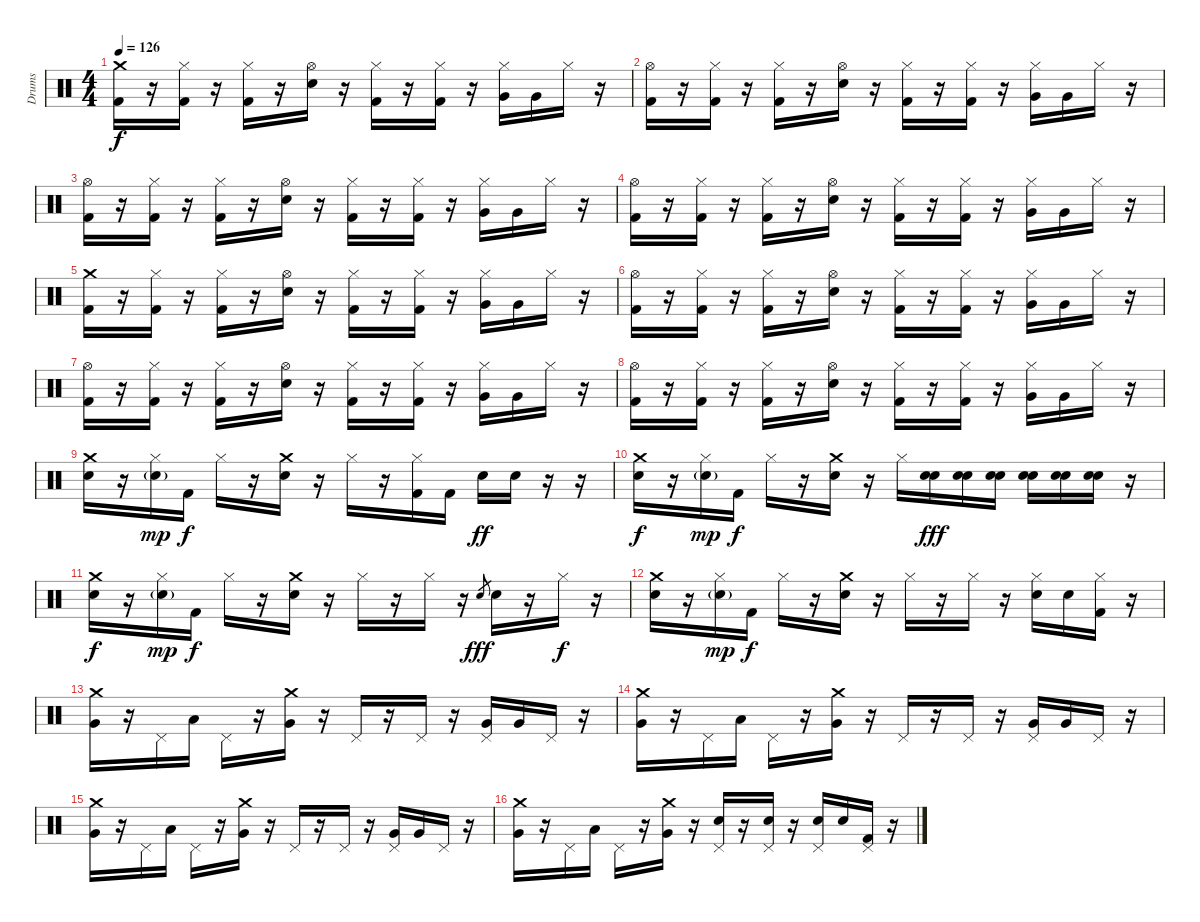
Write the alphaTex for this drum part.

\track ("Drums" "Drums") {instrument percussion}
\staff {score}
\articulation defaults
\ts (4 4)
\tempo 126
\clef neutral
\ks c
("Crash medium (hit)" "Kick (hit) 2").16{dy f} r.16 ("Hi-Hat (closed)" "Kick (hit) 2").16 r.16 ("Hi-Hat (closed)" "Kick (hit) 2").16 r.16 ("Hi-Hat (open)" "Snare (hit) 2").16 r.16 ("Hi-Hat (closed)" "Kick (hit) 2").16 r.16 ("Hi-Hat (closed)" "Kick (hit) 2").16 r.16 ("Hi-Hat (closed)" "Very Low Tom (hit)").16 "Very Low Tom (hit)".16 "Hi-Hat (closed)".16 r.16 |
("Hi-Hat (open)" "Kick (hit) 2").16 r.16 ("Hi-Hat (closed)" "Kick (hit) 2").16 r.16 ("Hi-Hat (closed)" "Kick (hit) 2").16 r.16 ("Hi-Hat (open)" "Snare (hit) 2").16 r.16 ("Hi-Hat (closed)" "Kick (hit) 2").16 r.16 ("Hi-Hat (closed)" "Kick (hit) 2").16 r.16 ("Hi-Hat (closed)" "Very Low Tom (hit)").16 "Very Low Tom (hit)".16 "Hi-Hat (closed)".16 r.16 |
("Hi-Hat (open)" "Kick (hit) 2").16 r.16 ("Hi-Hat (closed)" "Kick (hit) 2").16 r.16 ("Hi-Hat (closed)" "Kick (hit) 2").16 r.16 ("Hi-Hat (open)" "Snare (hit) 2").16 r.16 ("Hi-Hat (closed)" "Kick (hit) 2").16 r.16 ("Hi-Hat (closed)" "Kick (hit) 2").16 r.16 ("Hi-Hat (closed)" "Very Low Tom (hit)").16 "Very Low Tom (hit)".16 "Hi-Hat (closed)".16 r.16 |
("Hi-Hat (open)" "Kick (hit) 2").16 r.16 ("Hi-Hat (closed)" "Kick (hit) 2").16 r.16 ("Hi-Hat (closed)" "Kick (hit) 2").16 r.16 ("Hi-Hat (open)" "Snare (hit) 2").16 r.16 ("Hi-Hat (closed)" "Kick (hit) 2").16 r.16 ("Hi-Hat (closed)" "Kick (hit) 2").16 r.16 ("Hi-Hat (closed)" "Very Low Tom (hit)").16 "Very Low Tom (hit)".16 "Hi-Hat (closed)".16 r.16 |
("Crash medium (hit)" "Kick (hit) 2").16 r.16 ("Hi-Hat (closed)" "Kick (hit) 2").16 r.16 ("Hi-Hat (closed)" "Kick (hit) 2").16 r.16 ("Hi-Hat (open)" "Snare (hit) 2").16 r.16 ("Hi-Hat (closed)" "Kick (hit) 2").16 r.16 ("Hi-Hat (closed)" "Kick (hit) 2").16 r.16 ("Hi-Hat (closed)" "Very Low Tom (hit)").16 "Very Low Tom (hit)".16 "Hi-Hat (closed)".16 r.16 |
("Hi-Hat (open)" "Kick (hit) 2").16 r.16 ("Hi-Hat (closed)" "Kick (hit) 2").16 r.16 ("Hi-Hat (closed)" "Kick (hit) 2").16 r.16 ("Hi-Hat (open)" "Snare (hit) 2").16 r.16 ("Hi-Hat (closed)" "Kick (hit) 2").16 r.16 ("Hi-Hat (closed)" "Kick (hit) 2").16 r.16 ("Hi-Hat (closed)" "Very Low Tom (hit)").16 "Very Low Tom (hit)".16 "Hi-Hat (closed)".16 r.16 |
("Hi-Hat (open)" "Kick (hit) 2").16 r.16 ("Hi-Hat (closed)" "Kick (hit) 2").16 r.16 ("Hi-Hat (closed)" "Kick (hit) 2").16 r.16 ("Hi-Hat (open)" "Snare (hit) 2").16 r.16 ("Hi-Hat (closed)" "Kick (hit) 2").16 r.16 ("Hi-Hat (closed)" "Kick (hit) 2").16 r.16 ("Hi-Hat (closed)" "Very Low Tom (hit)").16 "Very Low Tom (hit)".16 "Hi-Hat (closed)".16 r.16 |
("Hi-Hat (open)" "Kick (hit) 2").16 r.16 ("Hi-Hat (closed)" "Kick (hit) 2").16 r.16 ("Hi-Hat (closed)" "Kick (hit) 2").16 r.16 ("Hi-Hat (open)" "Snare (hit) 2").16 r.16 ("Hi-Hat (closed)" "Kick (hit) 2").16 r.16 ("Hi-Hat (closed)" "Kick (hit) 2").16 r.16 ("Hi-Hat (closed)" "Very Low Tom (hit)").16 "Very Low Tom (hit)".16 "Hi-Hat (closed)".16 r.16 |
("Crash medium (hit)" "Snare (hit) 2").16 r.16 ("Hi-Hat (closed)" "Snare (hit) 2"{g}).16{dy mp} "Kick (hit) 2".16{dy f} "Hi-Hat (closed)".16 r.16 ("Crash medium (hit)" "Snare (hit) 2").16 r.16 "Hi-Hat (closed)".16 r.16 ("Hi-Hat (closed)" "Kick (hit) 2").16 "Kick (hit) 2".16 "Snare (hit) 2".16{dy ff} "Snare (hit) 2".16 r.16 r.16 |
("Crash medium (hit)" "Snare (hit) 2").16{dy f} r.16 ("Hi-Hat (closed)" "Snare (hit) 2"{g}).16{dy mp} "Kick (hit) 2".16{dy f} "Hi-Hat (closed)".16 r.16 ("Crash medium (hit)" "Snare (hit) 2").16 r.16 "Hi-Hat (closed)".16 ("Snare (hit) 2" "Snare (hit) 2").16{dy fff} ("Snare (hit) 2" "Snare (hit) 2").16 ("Snare (hit) 2" "Snare (hit) 2").16 ("Snare (hit) 2" "Snare (hit) 2").16 ("Snare (hit) 2" "Snare (hit) 2").16 ("Snare (hit) 2" "Snare (hit) 2").16 r.16 |
("Crash medium (hit)" "Snare (hit) 2").16{dy f} r.16 ("Hi-Hat (closed)" "Snare (hit) 2"{g}).16{dy mp} "Kick (hit) 2".16{dy f} "Hi-Hat (closed)".16 r.16 ("Crash medium (hit)" "Snare (hit) 2").16 r.16 "Hi-Hat (closed)".16 r.16 "Hi-Hat (closed)".16 r.16 "Snare (hit) 2".8{gr dy fff} "Snare (hit) 2".16 r.16 "Hi-Hat (closed)".16{dy f} r.16 |
("Crash medium (hit)" "Snare (hit) 2").16 r.16 ("Hi-Hat (closed)" "Snare (hit) 2"{g}).16{dy mp} "Kick (hit) 2".16{dy f} "Hi-Hat (closed)".16 r.16 ("Crash medium (hit)" "Snare (hit) 2").16 r.16 "Hi-Hat (closed)".16 r.16 "Hi-Hat (closed)".16 r.16 ("Hi-Hat (closed)" "Snare (hit) 2").16 "Snare (hit) 2".16 ("Hi-Hat (closed)" "Kick (hit) 2").16 r.16 |
("Crash medium (hit)" "Very Low Tom (hit)").16 r.16 "Pedal Hi-Hat (hit)".16 "Low Floor Tom (hit)".16 "Pedal Hi-Hat (hit)".16 r.16 ("Crash medium (hit)" "Very Low Tom (hit)").16 r.16 "Pedal Hi-Hat (hit)".16 r.16 "Pedal Hi-Hat (hit)".16 r.16 ("Pedal Hi-Hat (hit)" "Very Low Tom (hit)").16 "Very Low Tom (hit)".16 "Pedal Hi-Hat (hit)".16 r.16 |
("Crash medium (hit)" "Very Low Tom (hit)").16 r.16 "Pedal Hi-Hat (hit)".16 "Low Floor Tom (hit)".16 "Pedal Hi-Hat (hit)".16 r.16 ("Crash medium (hit)" "Very Low Tom (hit)").16 r.16 "Pedal Hi-Hat (hit)".16 r.16 "Pedal Hi-Hat (hit)".16 r.16 ("Pedal Hi-Hat (hit)" "Very Low Tom (hit)").16 "Very Low Tom (hit)".16 "Pedal Hi-Hat (hit)".16 r.16 |
("Crash medium (hit)" "Very Low Tom (hit)").16 r.16 "Pedal Hi-Hat (hit)".16 "Low Floor Tom (hit)".16 "Pedal Hi-Hat (hit)".16 r.16 ("Crash medium (hit)" "Very Low Tom (hit)").16 r.16 "Pedal Hi-Hat (hit)".16 r.16 "Pedal Hi-Hat (hit)".16 r.16 ("Pedal Hi-Hat (hit)" "Very Low Tom (hit)").16 "Very Low Tom (hit)".16 "Pedal Hi-Hat (hit)".16 r.16 |
("Crash medium (hit)" "Very Low Tom (hit)").16 r.16 "Pedal Hi-Hat (hit)".16 "Low Floor Tom (hit)".16 "Pedal Hi-Hat (hit)".16 r.16 ("Crash medium (hit)" "Very Low Tom (hit)").16 r.16 ("Pedal Hi-Hat (hit)" "Snare (hit) 2").16 r.16 ("Pedal Hi-Hat (hit)" "Snare (hit) 2").16 r.16 ("Pedal Hi-Hat (hit)" "Snare (hit) 2").16 "Snare (hit) 2".16 ("Pedal Hi-Hat (hit)" "Kick (hit) 2").16 r.16
